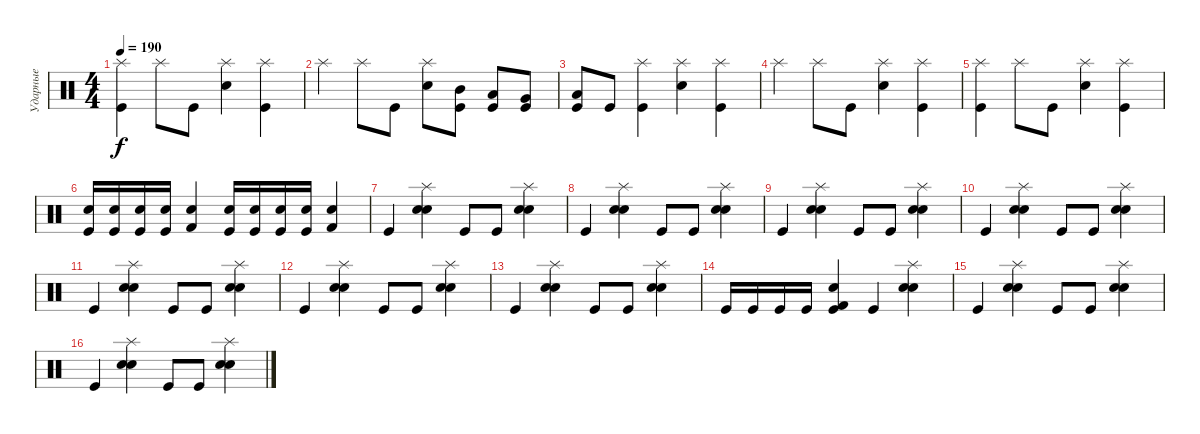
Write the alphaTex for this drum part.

\track ("Ударные" "Ударные") {instrument percussion}
\staff {score}
\articulation defaults
\ts (4 4)
\tempo 190
\clef neutral
\ks c
("Splash (hit)" "Kick (hit)").4{dy f} "Splash (hit)".8 "Kick (hit)".8 ("Splash (hit)" "Electric Snare (hit)").4 ("Splash (hit)" "Kick (hit)").4 |
"Splash (hit)".4 "Splash (hit)".8 "Kick (hit)".8 ("Splash (hit)" "Electric Snare (hit)").8 ("Mid Tom (hit)" "Kick (hit)").8 ("Low Tom (hit)" "Kick (hit)").8 ("Very Low Tom (hit)" "Kick (hit)").8 |
("Low Floor Tom (hit)" "Kick (hit)").8 "Kick (hit)".8 ("Splash (hit)" "Kick (hit)").4 ("Splash (hit)" "Electric Snare (hit)").4 ("Splash (hit)" "Kick (hit)").4 |
"Splash (hit)".4 "Splash (hit)".8 "Kick (hit)".8 ("Splash (hit)" "Electric Snare (hit)").4 ("Splash (hit)" "Kick (hit)").4 |
("Splash (hit)" "Kick (hit)").4 "Splash (hit)".8 "Kick (hit)".8 ("Splash (hit)" "Electric Snare (hit)").4 ("Splash (hit)" "Kick (hit)").4 |
("Electric Snare (hit)" "Kick (hit)").16 ("Electric Snare (hit)" "Kick (hit)").16 ("Electric Snare (hit)" "Kick (hit)").16 ("Electric Snare (hit)" "Kick (hit)").16 ("Electric Snare (hit)" "Kick (hit) 2").4 ("Electric Snare (hit)" "Kick (hit)").16 ("Electric Snare (hit)" "Kick (hit)").16 ("Electric Snare (hit)" "Kick (hit)").16 ("Electric Snare (hit)" "Kick (hit)").16 ("Electric Snare (hit)" "Kick (hit) 2").4 |
"Kick (hit)".4 ("Splash (hit)" "Snare (hit) 2" "Electric Snare (hit)").4 "Kick (hit)".8 "Kick (hit)".8 ("Splash (hit)" "Snare (hit) 2" "Electric Snare (hit)").4 |
"Kick (hit)".4 ("Splash (hit)" "Snare (hit) 2" "Electric Snare (hit)").4 "Kick (hit)".8 "Kick (hit)".8 ("Splash (hit)" "Snare (hit) 2" "Electric Snare (hit)").4 |
"Kick (hit)".4 ("Splash (hit)" "Snare (hit) 2" "Electric Snare (hit)").4 "Kick (hit)".8 "Kick (hit)".8 ("Splash (hit)" "Snare (hit) 2" "Electric Snare (hit)").4 |
"Kick (hit)".4 ("Splash (hit)" "Snare (hit) 2" "Electric Snare (hit)").4 "Kick (hit)".8 "Kick (hit)".8 ("Splash (hit)" "Snare (hit) 2" "Electric Snare (hit)").4 |
"Kick (hit)".4 ("Splash (hit)" "Snare (hit) 2" "Electric Snare (hit)").4 "Kick (hit)".8 "Kick (hit)".8 ("Splash (hit)" "Snare (hit) 2" "Electric Snare (hit)").4 |
"Kick (hit)".4 ("Splash (hit)" "Snare (hit) 2" "Electric Snare (hit)").4 "Kick (hit)".8 "Kick (hit)".8 ("Splash (hit)" "Snare (hit) 2" "Electric Snare (hit)").4 |
"Kick (hit)".4 ("Splash (hit)" "Snare (hit) 2" "Electric Snare (hit)").4 "Kick (hit)".8 "Kick (hit)".8 ("Splash (hit)" "Snare (hit) 2" "Electric Snare (hit)").4 |
"Kick (hit)".16 "Kick (hit)".16 "Kick (hit)".16 "Kick (hit)".16 ("Electric Snare (hit)" "Kick (hit)" "Kick (hit) 2").4 "Kick (hit)".4 ("Splash (hit)" "Snare (hit) 2" "Electric Snare (hit)").4 |
"Kick (hit)".4 ("Splash (hit)" "Snare (hit) 2" "Electric Snare (hit)").4 "Kick (hit)".8 "Kick (hit)".8 ("Splash (hit)" "Snare (hit) 2" "Electric Snare (hit)").4 |
"Kick (hit)".4 ("Splash (hit)" "Snare (hit) 2" "Electric Snare (hit)").4 "Kick (hit)".8 "Kick (hit)".8 ("Splash (hit)" "Snare (hit) 2" "Electric Snare (hit)").4
